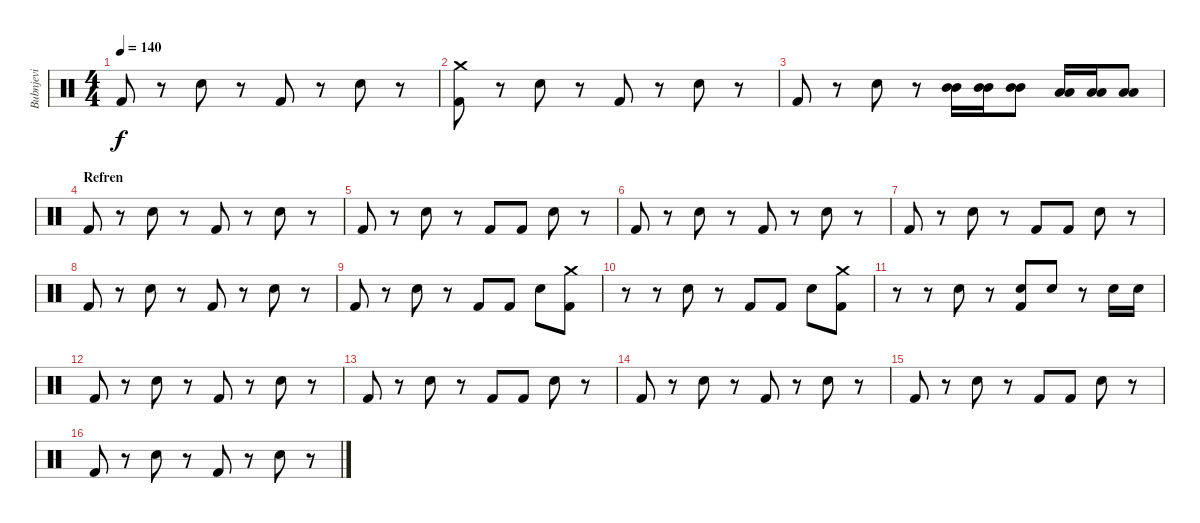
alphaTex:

\track ("Bubnjevi" "Bubnjevi") {instrument percussion}
\staff {score}
\articulation defaults
\ts (4 4)
\tempo 140
\clef neutral
\ks c "Kick (hit) 2".8{dy f}
r.8 "Snare (hit) 2".8 r.8 "Kick (hit) 2".8 r.8 "Snare (hit) 2".8 r.8 |
("Crash medium (hit)" "Kick (hit) 2").8 r.8 "Snare (hit) 2".8 r.8 "Kick (hit) 2".8 r.8 "Snare (hit) 2".8 r.8 |
"Kick (hit) 2".8 r.8 "Snare (hit) 2".8 r.8 ("Mid Tom (hit)" "Mid Tom (hit)").16 ("Mid Tom (hit)" "Mid Tom (hit)").16 ("Mid Tom (hit)" "Mid Tom (hit)").8 ("Low Tom (hit)" "Low Tom (hit)").16 ("Low Tom (hit)" "Low Tom (hit)").16 ("Low Tom (hit)" "Low Tom (hit)").8 |
\section ("" "Refren")
"Kick (hit) 2".8 r.8 "Snare (hit) 2".8 r.8 "Kick (hit) 2".8 r.8 "Snare (hit) 2".8 r.8 |
"Kick (hit) 2".8 r.8 "Snare (hit) 2".8 r.8 "Kick (hit) 2".8 "Kick (hit) 2".8 "Snare (hit) 2".8 r.8 |
"Kick (hit) 2".8 r.8 "Snare (hit) 2".8 r.8 "Kick (hit) 2".8 r.8 "Snare (hit) 2".8 r.8 |
"Kick (hit) 2".8 r.8 "Snare (hit) 2".8 r.8 "Kick (hit) 2".8 "Kick (hit) 2".8 "Snare (hit) 2".8 r.8 |
"Kick (hit) 2".8 r.8 "Snare (hit) 2".8 r.8 "Kick (hit) 2".8 r.8 "Snare (hit) 2".8 r.8 |
"Kick (hit) 2".8 r.8 "Snare (hit) 2".8 r.8 "Kick (hit) 2".8 "Kick (hit) 2".8 "Snare (hit) 2".8 ("Crash medium (hit)" "Kick (hit) 2").8 |
r.8 r.8 "Snare (hit) 2".8 r.8 "Kick (hit) 2".8 "Kick (hit) 2".8 "Snare (hit) 2".8 ("Crash medium (hit)" "Kick (hit) 2").8 |
r.8 r.8 "Snare (hit) 2".8 r.8 ("Snare (hit) 2" "Kick (hit) 2").8 "Snare (hit) 2".8 r.8 "Snare (hit) 2".16 "Snare (hit) 2".16 |
"Kick (hit) 2".8 r.8 "Snare (hit) 2".8 r.8 "Kick (hit) 2".8 r.8 "Snare (hit) 2".8 r.8 |
"Kick (hit) 2".8 r.8 "Snare (hit) 2".8 r.8 "Kick (hit) 2".8 "Kick (hit) 2".8 "Snare (hit) 2".8 r.8 |
"Kick (hit) 2".8 r.8 "Snare (hit) 2".8 r.8 "Kick (hit) 2".8 r.8 "Snare (hit) 2".8 r.8 |
"Kick (hit) 2".8 r.8 "Snare (hit) 2".8 r.8 "Kick (hit) 2".8 "Kick (hit) 2".8 "Snare (hit) 2".8 r.8 |
"Kick (hit) 2".8 r.8 "Snare (hit) 2".8 r.8 "Kick (hit) 2".8 r.8 "Snare (hit) 2".8 r.8
